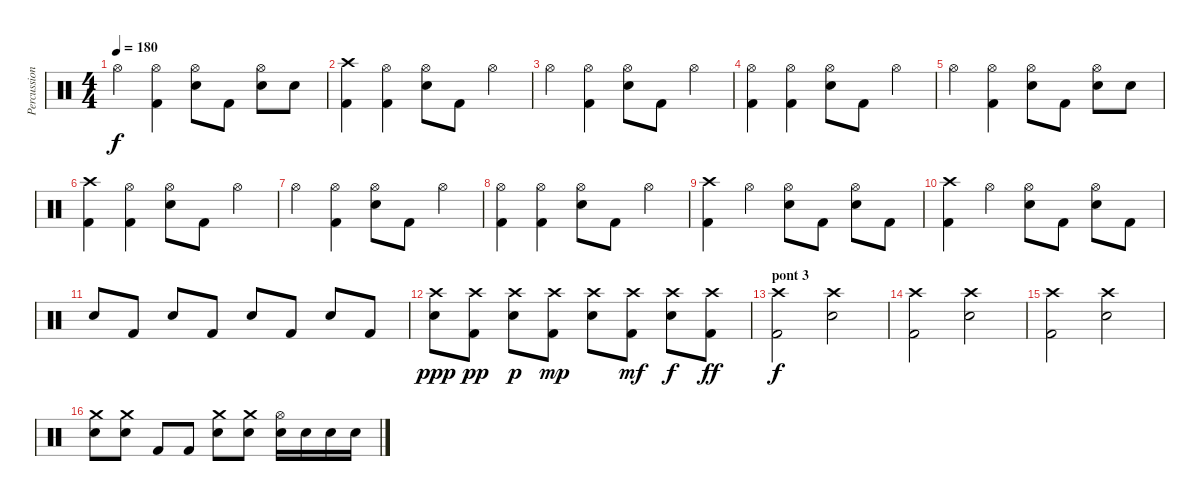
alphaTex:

\track ("Percussions" "Percussion") {instrument percussion}
\staff {score}
\articulation defaults
\ts (4 4)
\tempo 180
\clef neutral
\ks c "Hi-Hat (open)".4{dy f}
("Hi-Hat (open)" "Kick (hit) 2").4 ("Hi-Hat (open)" "Snare (hit) 2").8 "Kick (hit) 2".8 ("Hi-Hat (open)" "Snare (hit) 2").8 "Snare (hit) 2".8 |
("Crash high (hit)" "Kick (hit) 2").4 ("Hi-Hat (open)" "Kick (hit) 2").4 ("Hi-Hat (open)" "Snare (hit) 2").8 "Kick (hit) 2".8 "Hi-Hat (open)".4 |
"Hi-Hat (open)".4 ("Hi-Hat (open)" "Kick (hit) 2").4 ("Hi-Hat (open)" "Snare (hit) 2").8 "Kick (hit) 2".8 "Hi-Hat (open)".4 |
("Hi-Hat (open)" "Kick (hit) 2").4 ("Hi-Hat (open)" "Kick (hit) 2").4 ("Hi-Hat (open)" "Snare (hit) 2").8 "Kick (hit) 2".8 "Hi-Hat (open)".4 |
"Hi-Hat (open)".4 ("Hi-Hat (open)" "Kick (hit) 2").4 ("Hi-Hat (open)" "Snare (hit) 2").8 "Kick (hit) 2".8 ("Hi-Hat (open)" "Snare (hit) 2").8 "Snare (hit) 2".8 |
("Crash high (hit)" "Kick (hit) 2").4 ("Hi-Hat (open)" "Kick (hit) 2").4 ("Hi-Hat (open)" "Snare (hit) 2").8 "Kick (hit) 2".8 "Hi-Hat (open)".4 |
"Hi-Hat (open)".4 ("Hi-Hat (open)" "Kick (hit) 2").4 ("Hi-Hat (open)" "Snare (hit) 2").8 "Kick (hit) 2".8 "Hi-Hat (open)".4 |
("Hi-Hat (open)" "Kick (hit) 2").4 ("Hi-Hat (open)" "Kick (hit) 2").4 ("Hi-Hat (open)" "Snare (hit) 2").8 "Kick (hit) 2".8 "Hi-Hat (open)".4 |
("Crash high (hit)" "Kick (hit) 2").4 "Hi-Hat (open)".4 ("Hi-Hat (open)" "Snare (hit) 2").8 "Kick (hit) 2".8 ("Hi-Hat (open)" "Snare (hit) 2").8 "Kick (hit) 2".8 |
("Crash high (hit)" "Kick (hit) 2").4 "Hi-Hat (open)".4 ("Hi-Hat (open)" "Snare (hit) 2").8 "Kick (hit) 2".8 ("Hi-Hat (open)" "Snare (hit) 2").8 "Kick (hit) 2".8 |
"Snare (hit) 2".8 "Kick (hit) 2".8 "Snare (hit) 2".8 "Kick (hit) 2".8 "Snare (hit) 2".8 "Kick (hit) 2".8 "Snare (hit) 2".8 "Kick (hit) 2".8 |
("Crash high (hit)" "Snare (hit) 2").8{dy ppp} ("Crash high (hit)" "Kick (hit) 2").8{dy pp} ("Crash high (hit)" "Snare (hit) 2").8{dy p} ("Crash high (hit)" "Kick (hit) 2").8{dy mp} ("Crash high (hit)" "Snare (hit) 2").8 ("Crash high (hit)" "Kick (hit) 2").8{dy mf} ("Crash high (hit)" "Snare (hit) 2").8{dy f} ("Crash high (hit)" "Kick (hit) 2").8{dy ff} |
\section ("" "pont 3")
("Crash high (hit)" "Kick (hit) 2").2{dy f} ("Crash high (hit)" "Snare (hit) 2").2 |
("Crash high (hit)" "Kick (hit) 2").2 ("Crash high (hit)" "Snare (hit) 2").2 |
("Crash high (hit)" "Kick (hit) 2").2 ("Crash high (hit)" "Snare (hit) 2").2 |
("Crash medium (hit)" "Snare (hit) 2").8 ("Crash medium (hit)" "Snare (hit) 2").8 "Kick (hit) 2".8 "Kick (hit) 2".8 ("Crash medium (hit)" "Snare (hit) 2").8 ("Crash medium (hit)" "Snare (hit) 2").8 ("Hi-Hat (open)" "Snare (hit) 2").16 "Snare (hit) 2".16 "Snare (hit) 2".16 "Snare (hit) 2".16
